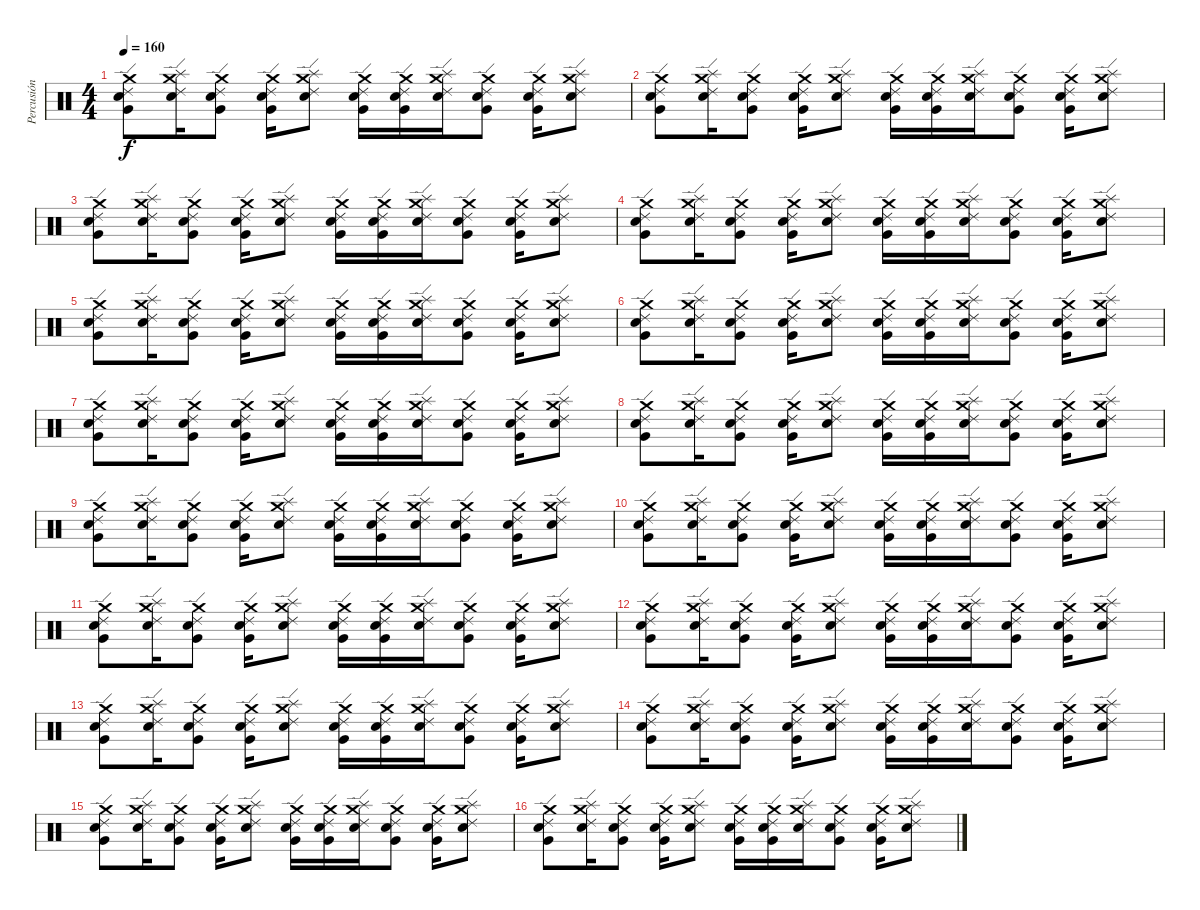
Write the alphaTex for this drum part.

\track ("Percusión" "Percusión") {instrument percussion}
\staff {score}
\articulation defaults
\ts (4 4)
\tempo 160
\clef neutral
\ks c
("Snare (hit) 2" "Very Low Tom (hit)" "Ride (edge) 2" "Crash medium (hit)").8{dy f} ("Electric Snare (hit)" "Splash (hit)" "Ride (edge) 2" "Crash medium (hit)").16 ("Snare (hit) 2" "Very Low Tom (hit)" "Ride (edge) 2" "Crash medium (hit)").8 ("Snare (hit) 2" "Very Low Tom (hit)" "Ride (edge) 2" "Crash medium (hit)").16 ("Electric Snare (hit)" "Splash (hit)" "Ride (edge) 2" "Crash medium (hit)").8 ("Snare (hit) 2" "Very Low Tom (hit)" "Ride (edge) 2" "Crash medium (hit)").16 ("Snare (hit) 2" "Very Low Tom (hit)" "Ride (edge) 2" "Crash medium (hit)").16 ("Splash (hit)" "Electric Snare (hit)" "Ride (edge) 2" "Crash medium (hit)").16 ("Snare (hit) 2" "Very Low Tom (hit)" "Ride (edge) 2" "Crash medium (hit)").8 ("Snare (hit) 2" "Very Low Tom (hit)" "Ride (edge) 2" "Crash medium (hit)").16 ("Electric Snare (hit)" "Splash (hit)" "Ride (edge) 2" "Crash medium (hit)").8 |
("Snare (hit) 2" "Very Low Tom (hit)" "Ride (edge) 2" "Crash medium (hit)").8 ("Electric Snare (hit)" "Splash (hit)" "Ride (edge) 2" "Crash medium (hit)").16 ("Snare (hit) 2" "Very Low Tom (hit)" "Ride (edge) 2" "Crash medium (hit)").8 ("Snare (hit) 2" "Very Low Tom (hit)" "Ride (edge) 2" "Crash medium (hit)").16 ("Electric Snare (hit)" "Splash (hit)" "Ride (edge) 2" "Crash medium (hit)").8 ("Snare (hit) 2" "Very Low Tom (hit)" "Ride (edge) 2" "Crash medium (hit)").16 ("Snare (hit) 2" "Very Low Tom (hit)" "Ride (edge) 2" "Crash medium (hit)").16 ("Splash (hit)" "Electric Snare (hit)" "Ride (edge) 2" "Crash medium (hit)").16 ("Snare (hit) 2" "Very Low Tom (hit)" "Ride (edge) 2" "Crash medium (hit)").8 ("Snare (hit) 2" "Very Low Tom (hit)" "Ride (edge) 2" "Crash medium (hit)").16 ("Electric Snare (hit)" "Splash (hit)" "Ride (edge) 2" "Crash medium (hit)").8 |
("Snare (hit) 2" "Very Low Tom (hit)" "Ride (edge) 2" "Crash medium (hit)").8 ("Electric Snare (hit)" "Splash (hit)" "Ride (edge) 2" "Crash medium (hit)").16 ("Snare (hit) 2" "Very Low Tom (hit)" "Ride (edge) 2" "Crash medium (hit)").8 ("Snare (hit) 2" "Very Low Tom (hit)" "Ride (edge) 2" "Crash medium (hit)").16 ("Electric Snare (hit)" "Splash (hit)" "Ride (edge) 2" "Crash medium (hit)").8 ("Snare (hit) 2" "Very Low Tom (hit)" "Ride (edge) 2" "Crash medium (hit)").16 ("Snare (hit) 2" "Very Low Tom (hit)" "Ride (edge) 2" "Crash medium (hit)").16 ("Splash (hit)" "Electric Snare (hit)" "Ride (edge) 2" "Crash medium (hit)").16 ("Snare (hit) 2" "Very Low Tom (hit)" "Ride (edge) 2" "Crash medium (hit)").8 ("Snare (hit) 2" "Very Low Tom (hit)" "Ride (edge) 2" "Crash medium (hit)").16 ("Electric Snare (hit)" "Splash (hit)" "Ride (edge) 2" "Crash medium (hit)").8 |
("Snare (hit) 2" "Very Low Tom (hit)" "Ride (edge) 2" "Crash medium (hit)").8 ("Electric Snare (hit)" "Splash (hit)" "Ride (edge) 2" "Crash medium (hit)").16 ("Snare (hit) 2" "Very Low Tom (hit)" "Ride (edge) 2" "Crash medium (hit)").8 ("Snare (hit) 2" "Very Low Tom (hit)" "Ride (edge) 2" "Crash medium (hit)").16 ("Electric Snare (hit)" "Splash (hit)" "Ride (edge) 2" "Crash medium (hit)").8 ("Snare (hit) 2" "Very Low Tom (hit)" "Ride (edge) 2" "Crash medium (hit)").16 ("Snare (hit) 2" "Very Low Tom (hit)" "Ride (edge) 2" "Crash medium (hit)").16 ("Splash (hit)" "Electric Snare (hit)" "Ride (edge) 2" "Crash medium (hit)").16 ("Snare (hit) 2" "Very Low Tom (hit)" "Ride (edge) 2" "Crash medium (hit)").8 ("Snare (hit) 2" "Very Low Tom (hit)" "Ride (edge) 2" "Crash medium (hit)").16 ("Electric Snare (hit)" "Splash (hit)" "Ride (edge) 2" "Crash medium (hit)").8 |
("Snare (hit) 2" "Very Low Tom (hit)" "Ride (edge) 2" "Crash medium (hit)").8 ("Electric Snare (hit)" "Splash (hit)" "Ride (edge) 2" "Crash medium (hit)").16 ("Snare (hit) 2" "Very Low Tom (hit)" "Ride (edge) 2" "Crash medium (hit)").8 ("Snare (hit) 2" "Very Low Tom (hit)" "Ride (edge) 2" "Crash medium (hit)").16 ("Electric Snare (hit)" "Splash (hit)" "Ride (edge) 2" "Crash medium (hit)").8 ("Snare (hit) 2" "Very Low Tom (hit)" "Ride (edge) 2" "Crash medium (hit)").16 ("Snare (hit) 2" "Very Low Tom (hit)" "Ride (edge) 2" "Crash medium (hit)").16 ("Splash (hit)" "Electric Snare (hit)" "Ride (edge) 2" "Crash medium (hit)").16 ("Snare (hit) 2" "Very Low Tom (hit)" "Ride (edge) 2" "Crash medium (hit)").8 ("Snare (hit) 2" "Very Low Tom (hit)" "Ride (edge) 2" "Crash medium (hit)").16 ("Electric Snare (hit)" "Splash (hit)" "Ride (edge) 2" "Crash medium (hit)").8 |
("Snare (hit) 2" "Very Low Tom (hit)" "Ride (edge) 2" "Crash medium (hit)").8 ("Electric Snare (hit)" "Splash (hit)" "Ride (edge) 2" "Crash medium (hit)").16 ("Snare (hit) 2" "Very Low Tom (hit)" "Ride (edge) 2" "Crash medium (hit)").8 ("Snare (hit) 2" "Very Low Tom (hit)" "Ride (edge) 2" "Crash medium (hit)").16 ("Electric Snare (hit)" "Splash (hit)" "Ride (edge) 2" "Crash medium (hit)").8 ("Snare (hit) 2" "Very Low Tom (hit)" "Ride (edge) 2" "Crash medium (hit)").16 ("Snare (hit) 2" "Very Low Tom (hit)" "Ride (edge) 2" "Crash medium (hit)").16 ("Splash (hit)" "Electric Snare (hit)" "Ride (edge) 2" "Crash medium (hit)").16 ("Snare (hit) 2" "Very Low Tom (hit)" "Ride (edge) 2" "Crash medium (hit)").8 ("Snare (hit) 2" "Very Low Tom (hit)" "Ride (edge) 2" "Crash medium (hit)").16 ("Electric Snare (hit)" "Splash (hit)" "Ride (edge) 2" "Crash medium (hit)").8 |
("Snare (hit) 2" "Very Low Tom (hit)" "Ride (edge) 2" "Crash medium (hit)").8 ("Electric Snare (hit)" "Splash (hit)" "Ride (edge) 2" "Crash medium (hit)").16 ("Snare (hit) 2" "Very Low Tom (hit)" "Ride (edge) 2" "Crash medium (hit)").8 ("Snare (hit) 2" "Very Low Tom (hit)" "Ride (edge) 2" "Crash medium (hit)").16 ("Electric Snare (hit)" "Splash (hit)" "Ride (edge) 2" "Crash medium (hit)").8 ("Snare (hit) 2" "Very Low Tom (hit)" "Ride (edge) 2" "Crash medium (hit)").16 ("Snare (hit) 2" "Very Low Tom (hit)" "Ride (edge) 2" "Crash medium (hit)").16 ("Splash (hit)" "Electric Snare (hit)" "Ride (edge) 2" "Crash medium (hit)").16 ("Snare (hit) 2" "Very Low Tom (hit)" "Ride (edge) 2" "Crash medium (hit)").8 ("Snare (hit) 2" "Very Low Tom (hit)" "Ride (edge) 2" "Crash medium (hit)").16 ("Electric Snare (hit)" "Splash (hit)" "Ride (edge) 2" "Crash medium (hit)").8 |
("Snare (hit) 2" "Very Low Tom (hit)" "Ride (edge) 2" "Crash medium (hit)").8 ("Electric Snare (hit)" "Splash (hit)" "Ride (edge) 2" "Crash medium (hit)").16 ("Snare (hit) 2" "Very Low Tom (hit)" "Ride (edge) 2" "Crash medium (hit)").8 ("Snare (hit) 2" "Very Low Tom (hit)" "Ride (edge) 2" "Crash medium (hit)").16 ("Electric Snare (hit)" "Splash (hit)" "Ride (edge) 2" "Crash medium (hit)").8 ("Snare (hit) 2" "Very Low Tom (hit)" "Ride (edge) 2" "Crash medium (hit)").16 ("Snare (hit) 2" "Very Low Tom (hit)" "Ride (edge) 2" "Crash medium (hit)").16 ("Splash (hit)" "Electric Snare (hit)" "Ride (edge) 2" "Crash medium (hit)").16 ("Snare (hit) 2" "Very Low Tom (hit)" "Ride (edge) 2" "Crash medium (hit)").8 ("Snare (hit) 2" "Very Low Tom (hit)" "Ride (edge) 2" "Crash medium (hit)").16 ("Electric Snare (hit)" "Splash (hit)" "Ride (edge) 2" "Crash medium (hit)").8 |
("Snare (hit) 2" "Very Low Tom (hit)" "Ride (edge) 2" "Crash medium (hit)").8 ("Electric Snare (hit)" "Splash (hit)" "Ride (edge) 2" "Crash medium (hit)").16 ("Snare (hit) 2" "Very Low Tom (hit)" "Ride (edge) 2" "Crash medium (hit)").8 ("Snare (hit) 2" "Very Low Tom (hit)" "Ride (edge) 2" "Crash medium (hit)").16 ("Electric Snare (hit)" "Splash (hit)" "Ride (edge) 2" "Crash medium (hit)").8 ("Snare (hit) 2" "Very Low Tom (hit)" "Ride (edge) 2" "Crash medium (hit)").16 ("Snare (hit) 2" "Very Low Tom (hit)" "Ride (edge) 2" "Crash medium (hit)").16 ("Splash (hit)" "Electric Snare (hit)" "Ride (edge) 2" "Crash medium (hit)").16 ("Snare (hit) 2" "Very Low Tom (hit)" "Ride (edge) 2" "Crash medium (hit)").8 ("Snare (hit) 2" "Very Low Tom (hit)" "Ride (edge) 2" "Crash medium (hit)").16 ("Electric Snare (hit)" "Splash (hit)" "Ride (edge) 2" "Crash medium (hit)").8 |
("Snare (hit) 2" "Very Low Tom (hit)" "Ride (edge) 2" "Crash medium (hit)").8 ("Electric Snare (hit)" "Splash (hit)" "Ride (edge) 2" "Crash medium (hit)").16 ("Snare (hit) 2" "Very Low Tom (hit)" "Ride (edge) 2" "Crash medium (hit)").8 ("Snare (hit) 2" "Very Low Tom (hit)" "Ride (edge) 2" "Crash medium (hit)").16 ("Electric Snare (hit)" "Splash (hit)" "Ride (edge) 2" "Crash medium (hit)").8 ("Snare (hit) 2" "Very Low Tom (hit)" "Ride (edge) 2" "Crash medium (hit)").16 ("Snare (hit) 2" "Very Low Tom (hit)" "Ride (edge) 2" "Crash medium (hit)").16 ("Splash (hit)" "Electric Snare (hit)" "Ride (edge) 2" "Crash medium (hit)").16 ("Snare (hit) 2" "Very Low Tom (hit)" "Ride (edge) 2" "Crash medium (hit)").8 ("Snare (hit) 2" "Very Low Tom (hit)" "Ride (edge) 2" "Crash medium (hit)").16 ("Electric Snare (hit)" "Splash (hit)" "Ride (edge) 2" "Crash medium (hit)").8 |
("Snare (hit) 2" "Very Low Tom (hit)" "Ride (edge) 2" "Crash medium (hit)").8 ("Electric Snare (hit)" "Splash (hit)" "Ride (edge) 2" "Crash medium (hit)").16 ("Snare (hit) 2" "Very Low Tom (hit)" "Ride (edge) 2" "Crash medium (hit)").8 ("Snare (hit) 2" "Very Low Tom (hit)" "Ride (edge) 2" "Crash medium (hit)").16 ("Electric Snare (hit)" "Splash (hit)" "Ride (edge) 2" "Crash medium (hit)").8 ("Snare (hit) 2" "Very Low Tom (hit)" "Ride (edge) 2" "Crash medium (hit)").16 ("Snare (hit) 2" "Very Low Tom (hit)" "Ride (edge) 2" "Crash medium (hit)").16 ("Splash (hit)" "Electric Snare (hit)" "Ride (edge) 2" "Crash medium (hit)").16 ("Snare (hit) 2" "Very Low Tom (hit)" "Ride (edge) 2" "Crash medium (hit)").8 ("Snare (hit) 2" "Very Low Tom (hit)" "Ride (edge) 2" "Crash medium (hit)").16 ("Electric Snare (hit)" "Splash (hit)" "Ride (edge) 2" "Crash medium (hit)").8 |
("Snare (hit) 2" "Very Low Tom (hit)" "Ride (edge) 2" "Crash medium (hit)").8 ("Electric Snare (hit)" "Splash (hit)" "Ride (edge) 2" "Crash medium (hit)").16 ("Snare (hit) 2" "Very Low Tom (hit)" "Ride (edge) 2" "Crash medium (hit)").8 ("Snare (hit) 2" "Very Low Tom (hit)" "Ride (edge) 2" "Crash medium (hit)").16 ("Electric Snare (hit)" "Splash (hit)" "Ride (edge) 2" "Crash medium (hit)").8 ("Snare (hit) 2" "Very Low Tom (hit)" "Ride (edge) 2" "Crash medium (hit)").16 ("Snare (hit) 2" "Very Low Tom (hit)" "Ride (edge) 2" "Crash medium (hit)").16 ("Splash (hit)" "Electric Snare (hit)" "Ride (edge) 2" "Crash medium (hit)").16 ("Snare (hit) 2" "Very Low Tom (hit)" "Ride (edge) 2" "Crash medium (hit)").8 ("Snare (hit) 2" "Very Low Tom (hit)" "Ride (edge) 2" "Crash medium (hit)").16 ("Electric Snare (hit)" "Splash (hit)" "Ride (edge) 2" "Crash medium (hit)").8 |
("Snare (hit) 2" "Very Low Tom (hit)" "Ride (edge) 2" "Crash medium (hit)").8 ("Electric Snare (hit)" "Splash (hit)" "Ride (edge) 2" "Crash medium (hit)").16 ("Snare (hit) 2" "Very Low Tom (hit)" "Ride (edge) 2" "Crash medium (hit)").8 ("Snare (hit) 2" "Very Low Tom (hit)" "Ride (edge) 2" "Crash medium (hit)").16 ("Electric Snare (hit)" "Splash (hit)" "Ride (edge) 2" "Crash medium (hit)").8 ("Snare (hit) 2" "Very Low Tom (hit)" "Ride (edge) 2" "Crash medium (hit)").16 ("Snare (hit) 2" "Very Low Tom (hit)" "Ride (edge) 2" "Crash medium (hit)").16 ("Splash (hit)" "Electric Snare (hit)" "Ride (edge) 2" "Crash medium (hit)").16 ("Snare (hit) 2" "Very Low Tom (hit)" "Ride (edge) 2" "Crash medium (hit)").8 ("Snare (hit) 2" "Very Low Tom (hit)" "Ride (edge) 2" "Crash medium (hit)").16 ("Electric Snare (hit)" "Splash (hit)" "Ride (edge) 2" "Crash medium (hit)").8 |
("Snare (hit) 2" "Very Low Tom (hit)" "Ride (edge) 2" "Crash medium (hit)").8 ("Electric Snare (hit)" "Splash (hit)" "Ride (edge) 2" "Crash medium (hit)").16 ("Snare (hit) 2" "Very Low Tom (hit)" "Ride (edge) 2" "Crash medium (hit)").8 ("Snare (hit) 2" "Very Low Tom (hit)" "Ride (edge) 2" "Crash medium (hit)").16 ("Electric Snare (hit)" "Splash (hit)" "Ride (edge) 2" "Crash medium (hit)").8 ("Snare (hit) 2" "Very Low Tom (hit)" "Ride (edge) 2" "Crash medium (hit)").16 ("Snare (hit) 2" "Very Low Tom (hit)" "Ride (edge) 2" "Crash medium (hit)").16 ("Splash (hit)" "Electric Snare (hit)" "Ride (edge) 2" "Crash medium (hit)").16 ("Snare (hit) 2" "Very Low Tom (hit)" "Ride (edge) 2" "Crash medium (hit)").8 ("Snare (hit) 2" "Very Low Tom (hit)" "Ride (edge) 2" "Crash medium (hit)").16 ("Electric Snare (hit)" "Splash (hit)" "Ride (edge) 2" "Crash medium (hit)").8 |
("Snare (hit) 2" "Very Low Tom (hit)" "Ride (edge) 2" "Crash medium (hit)").8 ("Electric Snare (hit)" "Splash (hit)" "Ride (edge) 2" "Crash medium (hit)").16 ("Snare (hit) 2" "Very Low Tom (hit)" "Ride (edge) 2" "Crash medium (hit)").8 ("Snare (hit) 2" "Very Low Tom (hit)" "Ride (edge) 2" "Crash medium (hit)").16 ("Electric Snare (hit)" "Splash (hit)" "Ride (edge) 2" "Crash medium (hit)").8 ("Snare (hit) 2" "Very Low Tom (hit)" "Ride (edge) 2" "Crash medium (hit)").16 ("Snare (hit) 2" "Very Low Tom (hit)" "Ride (edge) 2" "Crash medium (hit)").16 ("Splash (hit)" "Electric Snare (hit)" "Ride (edge) 2" "Crash medium (hit)").16 ("Snare (hit) 2" "Very Low Tom (hit)" "Ride (edge) 2" "Crash medium (hit)").8 ("Snare (hit) 2" "Very Low Tom (hit)" "Ride (edge) 2" "Crash medium (hit)").16 ("Electric Snare (hit)" "Splash (hit)" "Ride (edge) 2" "Crash medium (hit)").8 |
("Snare (hit) 2" "Very Low Tom (hit)" "Ride (edge) 2" "Crash medium (hit)").8 ("Electric Snare (hit)" "Splash (hit)" "Ride (edge) 2" "Crash medium (hit)").16 ("Snare (hit) 2" "Very Low Tom (hit)" "Ride (edge) 2" "Crash medium (hit)").8 ("Snare (hit) 2" "Very Low Tom (hit)" "Ride (edge) 2" "Crash medium (hit)").16 ("Electric Snare (hit)" "Splash (hit)" "Ride (edge) 2" "Crash medium (hit)").8 ("Snare (hit) 2" "Very Low Tom (hit)" "Ride (edge) 2" "Crash medium (hit)").16 ("Snare (hit) 2" "Very Low Tom (hit)" "Ride (edge) 2" "Crash medium (hit)").16 ("Splash (hit)" "Electric Snare (hit)" "Ride (edge) 2" "Crash medium (hit)").16 ("Snare (hit) 2" "Very Low Tom (hit)" "Ride (edge) 2" "Crash medium (hit)").8 ("Snare (hit) 2" "Very Low Tom (hit)" "Ride (edge) 2" "Crash medium (hit)").16 ("Electric Snare (hit)" "Splash (hit)" "Ride (edge) 2" "Crash medium (hit)").8
